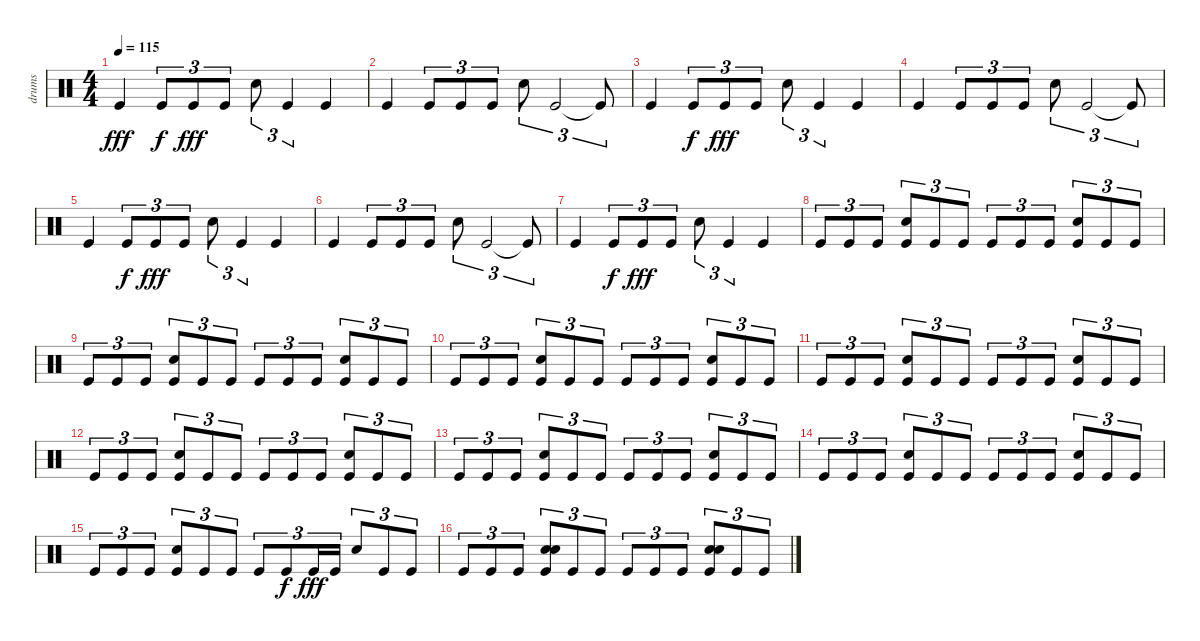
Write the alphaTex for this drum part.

\track ("drums" "drums") {instrument percussion}
\staff {score}
\articulation defaults
\ts (4 4)
\tempo 115
\clef neutral
\ks c "Kick (hit)".4{dy fff} "Kick (hit)".8{tu (3 2) dy f} "Kick (hit)".8{tu (3 2) dy fff} "Kick (hit)".8{tu (3 2)} "Electric Snare (hit)".8{tu (3 2)} "Kick (hit)".4{tu (3 2)} "Kick (hit)".4
|
"Kick (hit)".4 "Kick (hit)".8{tu (3 2)} "Kick (hit)".8{tu (3 2)} "Kick (hit)".8{tu (3 2)} "Electric Snare (hit)".8{tu (3 2)} "Kick (hit)".2{tu (3 2)} "Kick (hit)"{t}.8{tu (3 2)} |
"Kick (hit)".4 "Kick (hit)".8{tu (3 2) dy f} "Kick (hit)".8{tu (3 2) dy fff} "Kick (hit)".8{tu (3 2)} "Electric Snare (hit)".8{tu (3 2)} "Kick (hit)".4{tu (3 2)} "Kick (hit)".4 |
"Kick (hit)".4 "Kick (hit)".8{tu (3 2)} "Kick (hit)".8{tu (3 2)} "Kick (hit)".8{tu (3 2)} "Electric Snare (hit)".8{tu (3 2)} "Kick (hit)".2{tu (3 2)} "Kick (hit)"{t}.8{tu (3 2)} |
"Kick (hit)".4 "Kick (hit)".8{tu (3 2) dy f} "Kick (hit)".8{tu (3 2) dy fff} "Kick (hit)".8{tu (3 2)} "Electric Snare (hit)".8{tu (3 2)} "Kick (hit)".4{tu (3 2)} "Kick (hit)".4 |
"Kick (hit)".4 "Kick (hit)".8{tu (3 2)} "Kick (hit)".8{tu (3 2)} "Kick (hit)".8{tu (3 2)} "Electric Snare (hit)".8{tu (3 2)} "Kick (hit)".2{tu (3 2)} "Kick (hit)"{t}.8{tu (3 2)} |
"Kick (hit)".4 "Kick (hit)".8{tu (3 2) dy f} "Kick (hit)".8{tu (3 2) dy fff} "Kick (hit)".8{tu (3 2)} "Electric Snare (hit)".8{tu (3 2)} "Kick (hit)".4{tu (3 2)} "Kick (hit)".4 |
"Kick (hit)".8{tu (3 2)} "Kick (hit)".8{tu (3 2)} "Kick (hit)".8{tu (3 2)} ("Electric Snare (hit)" "Kick (hit)").8{tu (3 2)} "Kick (hit)".8{tu (3 2)} "Kick (hit)".8{tu (3 2)} "Kick (hit)".8{tu (3 2)} "Kick (hit)".8{tu (3 2)} "Kick (hit)".8{tu (3 2)} ("Electric Snare (hit)" "Kick (hit)").8{tu (3 2)} "Kick (hit)".8{tu (3 2)} "Kick (hit)".8{tu (3 2)} |
"Kick (hit)".8{tu (3 2)} "Kick (hit)".8{tu (3 2)} "Kick (hit)".8{tu (3 2)} ("Electric Snare (hit)" "Kick (hit)").8{tu (3 2)} "Kick (hit)".8{tu (3 2)} "Kick (hit)".8{tu (3 2)} "Kick (hit)".8{tu (3 2)} "Kick (hit)".8{tu (3 2)} "Kick (hit)".8{tu (3 2)} ("Electric Snare (hit)" "Kick (hit)").8{tu (3 2)} "Kick (hit)".8{tu (3 2)} "Kick (hit)".8{tu (3 2)} |
"Kick (hit)".8{tu (3 2)} "Kick (hit)".8{tu (3 2)} "Kick (hit)".8{tu (3 2)} ("Electric Snare (hit)" "Kick (hit)").8{tu (3 2)} "Kick (hit)".8{tu (3 2)} "Kick (hit)".8{tu (3 2)} "Kick (hit)".8{tu (3 2)} "Kick (hit)".8{tu (3 2)} "Kick (hit)".8{tu (3 2)} ("Electric Snare (hit)" "Kick (hit)").8{tu (3 2)} "Kick (hit)".8{tu (3 2)} "Kick (hit)".8{tu (3 2)} |
"Kick (hit)".8{tu (3 2)} "Kick (hit)".8{tu (3 2)} "Kick (hit)".8{tu (3 2)} ("Electric Snare (hit)" "Kick (hit)").8{tu (3 2)} "Kick (hit)".8{tu (3 2)} "Kick (hit)".8{tu (3 2)} "Kick (hit)".8{tu (3 2)} "Kick (hit)".8{tu (3 2)} "Kick (hit)".8{tu (3 2)} ("Electric Snare (hit)" "Kick (hit)").8{tu (3 2)} "Kick (hit)".8{tu (3 2)} "Kick (hit)".8{tu (3 2)} |
"Kick (hit)".8{tu (3 2)} "Kick (hit)".8{tu (3 2)} "Kick (hit)".8{tu (3 2)} ("Electric Snare (hit)" "Kick (hit)").8{tu (3 2)} "Kick (hit)".8{tu (3 2)} "Kick (hit)".8{tu (3 2)} "Kick (hit)".8{tu (3 2)} "Kick (hit)".8{tu (3 2)} "Kick (hit)".8{tu (3 2)} ("Electric Snare (hit)" "Kick (hit)").8{tu (3 2)} "Kick (hit)".8{tu (3 2)} "Kick (hit)".8{tu (3 2)} |
"Kick (hit)".8{tu (3 2)} "Kick (hit)".8{tu (3 2)} "Kick (hit)".8{tu (3 2)} ("Electric Snare (hit)" "Kick (hit)").8{tu (3 2)} "Kick (hit)".8{tu (3 2)} "Kick (hit)".8{tu (3 2)} "Kick (hit)".8{tu (3 2)} "Kick (hit)".8{tu (3 2)} "Kick (hit)".8{tu (3 2)} ("Electric Snare (hit)" "Kick (hit)").8{tu (3 2)} "Kick (hit)".8{tu (3 2)} "Kick (hit)".8{tu (3 2)} |
"Kick (hit)".8{tu (3 2)} "Kick (hit)".8{tu (3 2)} "Kick (hit)".8{tu (3 2)} ("Electric Snare (hit)" "Kick (hit)").8{tu (3 2)} "Kick (hit)".8{tu (3 2)} "Kick (hit)".8{tu (3 2)} "Kick (hit)".8{tu (3 2)} "Kick (hit)".8{tu (3 2)} "Kick (hit)".8{tu (3 2)} ("Electric Snare (hit)" "Kick (hit)").8{tu (3 2)} "Kick (hit)".8{tu (3 2)} "Kick (hit)".8{tu (3 2)} |
"Kick (hit)".8{tu (3 2)} "Kick (hit)".8{tu (3 2)} "Kick (hit)".8{tu (3 2)} ("Electric Snare (hit)" "Kick (hit)").8{tu (3 2)} "Kick (hit)".8{tu (3 2)} "Kick (hit)".8{tu (3 2)} "Kick (hit)".8{tu (3 2)} "Kick (hit)".8{tu (3 2) dy f} "Kick (hit)".16{tu (3 2) dy fff} "Kick (hit)".16{tu (3 2)} "Electric Snare (hit)".8{tu (3 2)} "Kick (hit)".8{tu (3 2)} "Kick (hit)".8{tu (3 2)} |
"Kick (hit)".8{tu (3 2)} "Kick (hit)".8{tu (3 2)} "Kick (hit)".8{tu (3 2)} ("Electric Snare (hit)" "Snare (hit) 2" "Kick (hit)").8{tu (3 2)} "Kick (hit)".8{tu (3 2)} "Kick (hit)".8{tu (3 2)} "Kick (hit)".8{tu (3 2)} "Kick (hit)".8{tu (3 2)} "Kick (hit)".8{tu (3 2)} ("Electric Snare (hit)" "Snare (hit) 2" "Kick (hit)").8{tu (3 2)} "Kick (hit)".8{tu (3 2)} "Kick (hit)".8{tu (3 2)}
